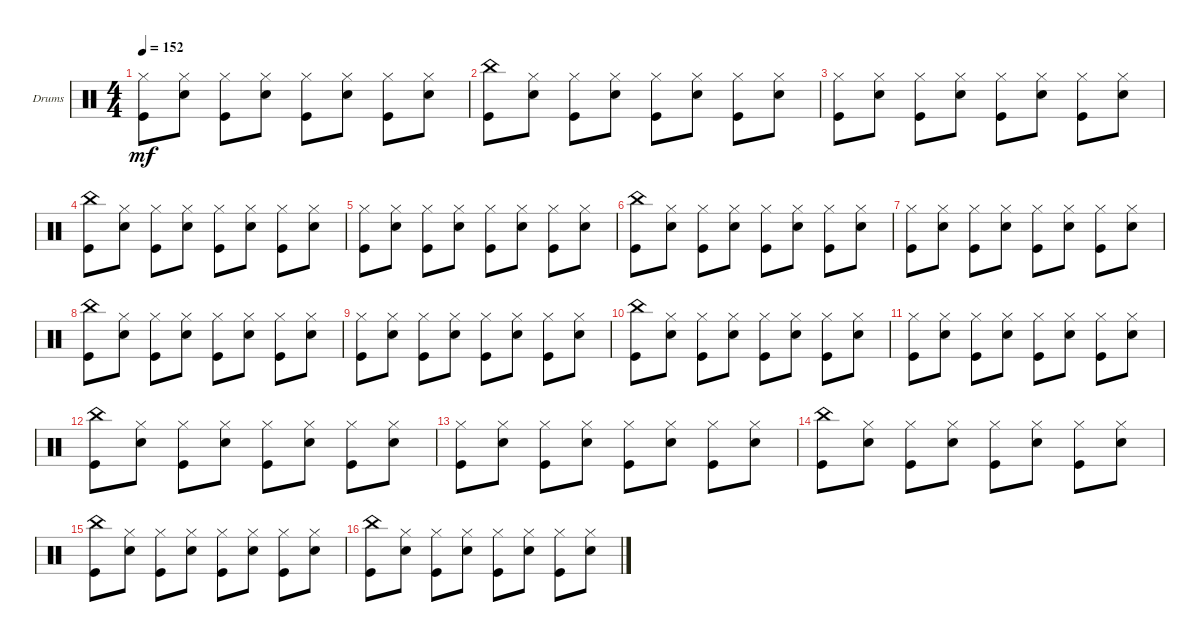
\defaultSystemsLayout 4
\bracketExtendMode groupsimilarinstruments
\firstSystemTrackNameOrientation horizontal
\otherSystemsTrackNameOrientation horizontal
\track ("Drumkit" "Drums") {instrument percussion}
\staff {score}
\articulation defaults
\ts (4 4)
\tempo 152
\clef neutral
\ks c
("Kick (hit)" "Hi-Hat (closed)").8{dy mf} ("Snare (hit) 2" "Hi-Hat (closed)").8 ("Hi-Hat (closed)" "Kick (hit)").8 ("Hi-Hat (closed)" "Snare (hit) 2").8 ("Hi-Hat (closed)" "Kick (hit)").8 ("Hi-Hat (closed)" "Snare (hit) 2").8 ("Hi-Hat (closed)" "Kick (hit)").8 ("Hi-Hat (closed)" "Snare (hit) 2").8 |
("Kick (hit)" "China (hit)").8 ("Snare (hit) 2" "Hi-Hat (closed)").8 ("Hi-Hat (closed)" "Kick (hit)").8 ("Hi-Hat (closed)" "Snare (hit) 2").8 ("Hi-Hat (closed)" "Kick (hit)").8 ("Hi-Hat (closed)" "Snare (hit) 2").8 ("Hi-Hat (closed)" "Kick (hit)").8 ("Hi-Hat (closed)" "Snare (hit) 2").8 |
("Kick (hit)" "Hi-Hat (closed)").8 ("Snare (hit) 2" "Hi-Hat (closed)").8 ("Hi-Hat (closed)" "Kick (hit)").8 ("Hi-Hat (closed)" "Snare (hit) 2").8 ("Hi-Hat (closed)" "Kick (hit)").8 ("Hi-Hat (closed)" "Snare (hit) 2").8 ("Hi-Hat (closed)" "Kick (hit)").8 ("Hi-Hat (closed)" "Snare (hit) 2").8 |
("Kick (hit)" "China (hit)").8 ("Snare (hit) 2" "Hi-Hat (closed)").8 ("Hi-Hat (closed)" "Kick (hit)").8 ("Hi-Hat (closed)" "Snare (hit) 2").8 ("Hi-Hat (closed)" "Kick (hit)").8 ("Hi-Hat (closed)" "Snare (hit) 2").8 ("Hi-Hat (closed)" "Kick (hit)").8 ("Hi-Hat (closed)" "Snare (hit) 2").8 |
("Kick (hit)" "Hi-Hat (closed)").8 ("Snare (hit) 2" "Hi-Hat (closed)").8 ("Hi-Hat (closed)" "Kick (hit)").8 ("Hi-Hat (closed)" "Snare (hit) 2").8 ("Hi-Hat (closed)" "Kick (hit)").8 ("Hi-Hat (closed)" "Snare (hit) 2").8 ("Hi-Hat (closed)" "Kick (hit)").8 ("Hi-Hat (closed)" "Snare (hit) 2").8 |
("Kick (hit)" "China (hit)").8 ("Snare (hit) 2" "Hi-Hat (closed)").8 ("Hi-Hat (closed)" "Kick (hit)").8 ("Hi-Hat (closed)" "Snare (hit) 2").8 ("Hi-Hat (closed)" "Kick (hit)").8 ("Hi-Hat (closed)" "Snare (hit) 2").8 ("Hi-Hat (closed)" "Kick (hit)").8 ("Hi-Hat (closed)" "Snare (hit) 2").8 |
("Kick (hit)" "Hi-Hat (closed)").8 ("Snare (hit) 2" "Hi-Hat (closed)").8 ("Hi-Hat (closed)" "Kick (hit)").8 ("Hi-Hat (closed)" "Snare (hit) 2").8 ("Hi-Hat (closed)" "Kick (hit)").8 ("Hi-Hat (closed)" "Snare (hit) 2").8 ("Hi-Hat (closed)" "Kick (hit)").8 ("Hi-Hat (closed)" "Snare (hit) 2").8 |
("Kick (hit)" "China (hit)").8 ("Snare (hit) 2" "Hi-Hat (closed)").8 ("Hi-Hat (closed)" "Kick (hit)").8 ("Hi-Hat (closed)" "Snare (hit) 2").8 ("Hi-Hat (closed)" "Kick (hit)").8 ("Hi-Hat (closed)" "Snare (hit) 2").8 ("Hi-Hat (closed)" "Kick (hit)").8 ("Hi-Hat (closed)" "Snare (hit) 2").8 |
("Kick (hit)" "Hi-Hat (closed)").8 ("Snare (hit) 2" "Hi-Hat (closed)").8 ("Hi-Hat (closed)" "Kick (hit)").8 ("Hi-Hat (closed)" "Snare (hit) 2").8 ("Hi-Hat (closed)" "Kick (hit)").8 ("Hi-Hat (closed)" "Snare (hit) 2").8 ("Hi-Hat (closed)" "Kick (hit)").8 ("Hi-Hat (closed)" "Snare (hit) 2").8 |
("Kick (hit)" "China (hit)").8 ("Snare (hit) 2" "Hi-Hat (closed)").8 ("Hi-Hat (closed)" "Kick (hit)").8 ("Hi-Hat (closed)" "Snare (hit) 2").8 ("Hi-Hat (closed)" "Kick (hit)").8 ("Hi-Hat (closed)" "Snare (hit) 2").8 ("Hi-Hat (closed)" "Kick (hit)").8 ("Hi-Hat (closed)" "Snare (hit) 2").8 |
("Kick (hit)" "Hi-Hat (closed)").8 ("Snare (hit) 2" "Hi-Hat (closed)").8 ("Hi-Hat (closed)" "Kick (hit)").8 ("Hi-Hat (closed)" "Snare (hit) 2").8 ("Hi-Hat (closed)" "Kick (hit)").8 ("Hi-Hat (closed)" "Snare (hit) 2").8 ("Hi-Hat (closed)" "Kick (hit)").8 ("Hi-Hat (closed)" "Snare (hit) 2").8 |
("Kick (hit)" "China (hit)").8 ("Snare (hit) 2" "Hi-Hat (closed)").8 ("Hi-Hat (closed)" "Kick (hit)").8 ("Hi-Hat (closed)" "Snare (hit) 2").8 ("Hi-Hat (closed)" "Kick (hit)").8 ("Hi-Hat (closed)" "Snare (hit) 2").8 ("Hi-Hat (closed)" "Kick (hit)").8 ("Hi-Hat (closed)" "Snare (hit) 2").8 |
("Kick (hit)" "Hi-Hat (closed)").8 ("Snare (hit) 2" "Hi-Hat (closed)").8 ("Hi-Hat (closed)" "Kick (hit)").8 ("Hi-Hat (closed)" "Snare (hit) 2").8 ("Hi-Hat (closed)" "Kick (hit)").8 ("Hi-Hat (closed)" "Snare (hit) 2").8 ("Hi-Hat (closed)" "Kick (hit)").8 ("Hi-Hat (closed)" "Snare (hit) 2").8 |
("Kick (hit)" "China (hit)").8 ("Snare (hit) 2" "Hi-Hat (closed)").8 ("Hi-Hat (closed)" "Kick (hit)").8 ("Hi-Hat (closed)" "Snare (hit) 2").8 ("Hi-Hat (closed)" "Kick (hit)").8 ("Hi-Hat (closed)" "Snare (hit) 2").8 ("Hi-Hat (closed)" "Kick (hit)").8 ("Hi-Hat (closed)" "Snare (hit) 2").8 |
("Kick (hit)" "China (hit)").8 ("Snare (hit) 2" "Hi-Hat (closed)").8 ("Hi-Hat (closed)" "Kick (hit)").8 ("Hi-Hat (closed)" "Snare (hit) 2").8 ("Hi-Hat (closed)" "Kick (hit)").8 ("Hi-Hat (closed)" "Snare (hit) 2").8 ("Hi-Hat (closed)" "Kick (hit)").8 ("Hi-Hat (closed)" "Snare (hit) 2").8 |
("Kick (hit)" "China (hit)").8 ("Snare (hit) 2" "Hi-Hat (closed)").8 ("Hi-Hat (closed)" "Kick (hit)").8 ("Hi-Hat (closed)" "Snare (hit) 2").8 ("Hi-Hat (closed)" "Kick (hit)").8 ("Hi-Hat (closed)" "Snare (hit) 2").8 ("Hi-Hat (closed)" "Kick (hit)").8 ("Hi-Hat (closed)" "Snare (hit) 2").8
